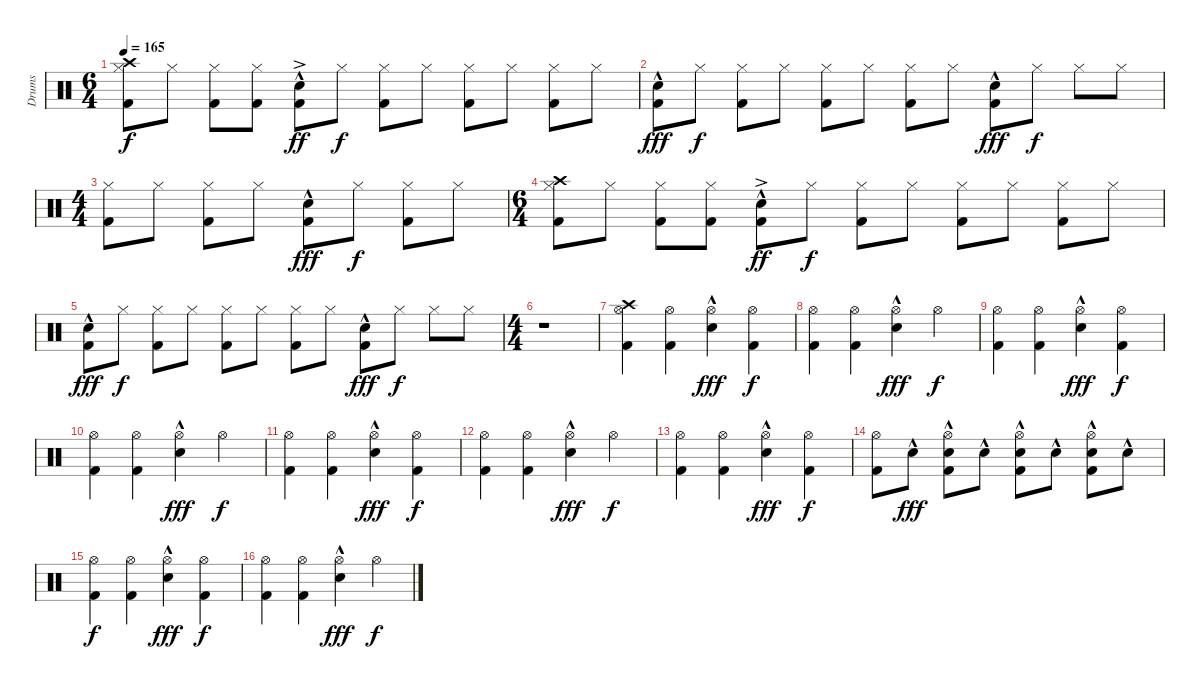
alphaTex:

\track ("Drums" "Drums") {instrument percussion}
\staff {score}
\articulation defaults
\ts (6 4)
\tempo 165
\clef neutral
\ks c
("Crash high (hit)" "Hi-Hat (closed)" "Kick (hit) 2").8{dy f} "Hi-Hat (closed)".8 ("Hi-Hat (closed)" "Kick (hit) 2").8 ("Hi-Hat (closed)" "Kick (hit) 2").8 ("Electric Snare (hit)"{hac} "Kick (hit) 2"{ac}).8{dy ff} "Hi-Hat (closed)".8{dy f} ("Hi-Hat (closed)" "Kick (hit) 2").8 "Hi-Hat (closed)".8 ("Hi-Hat (closed)" "Kick (hit) 2").8 "Hi-Hat (closed)".8 ("Hi-Hat (closed)" "Kick (hit) 2").8 "Hi-Hat (closed)".8 |
("Electric Snare (hit)"{hac} "Kick (hit) 2"{hac}).8{dy fff} "Hi-Hat (closed)".8{dy f} ("Hi-Hat (closed)" "Kick (hit) 2").8 "Hi-Hat (closed)".8 ("Hi-Hat (closed)" "Kick (hit) 2").8 "Hi-Hat (closed)".8 ("Hi-Hat (closed)" "Kick (hit) 2").8 "Hi-Hat (closed)".8 ("Electric Snare (hit)"{hac} "Kick (hit) 2"{hac}).8{dy fff} "Hi-Hat (closed)".8{dy f} "Hi-Hat (closed)".8 "Hi-Hat (closed)".8 |
\ts (4 4)
("Hi-Hat (closed)" "Kick (hit) 2").8 "Hi-Hat (closed)".8 ("Hi-Hat (closed)" "Kick (hit) 2").8 "Hi-Hat (closed)".8 ("Electric Snare (hit)"{hac} "Kick (hit) 2"{hac}).8{dy fff} "Hi-Hat (closed)".8{dy f} ("Hi-Hat (closed)" "Kick (hit) 2").8 "Hi-Hat (closed)".8 |
\ts (6 4)
("Crash high (hit)" "Hi-Hat (closed)" "Kick (hit) 2").8 "Hi-Hat (closed)".8 ("Hi-Hat (closed)" "Kick (hit) 2").8 ("Hi-Hat (closed)" "Kick (hit) 2").8 ("Electric Snare (hit)"{hac} "Kick (hit) 2"{ac}).8{dy ff} "Hi-Hat (closed)".8{dy f} ("Hi-Hat (closed)" "Kick (hit) 2").8 "Hi-Hat (closed)".8 ("Hi-Hat (closed)" "Kick (hit) 2").8 "Hi-Hat (closed)".8 ("Hi-Hat (closed)" "Kick (hit) 2").8 "Hi-Hat (closed)".8 |
("Electric Snare (hit)"{hac} "Kick (hit) 2"{hac}).8{dy fff} "Hi-Hat (closed)".8{dy f} ("Hi-Hat (closed)" "Kick (hit) 2").8 "Hi-Hat (closed)".8 ("Hi-Hat (closed)" "Kick (hit) 2").8 "Hi-Hat (closed)".8 ("Hi-Hat (closed)" "Kick (hit) 2").8 "Hi-Hat (closed)".8 ("Electric Snare (hit)"{hac} "Kick (hit) 2"{hac}).8{dy fff} "Hi-Hat (closed)".8{dy f} "Hi-Hat (closed)".8 "Hi-Hat (closed)".8 |
\ts (4 4)
r.1 |
("Crash high (hit)" "Hi-Hat (open)" "Kick (hit) 2").4 ("Hi-Hat (open)" "Kick (hit) 2").4 ("Hi-Hat (open)" "Electric Snare (hit)"{hac}).4{dy fff} ("Hi-Hat (open)" "Kick (hit) 2").4{dy f} |
("Hi-Hat (open)" "Kick (hit) 2").4 ("Hi-Hat (open)" "Kick (hit) 2").4 ("Hi-Hat (open)" "Electric Snare (hit)"{hac}).4{dy fff} "Hi-Hat (open)".4{dy f} |
("Hi-Hat (open)" "Kick (hit) 2").4 ("Hi-Hat (open)" "Kick (hit) 2").4 ("Hi-Hat (open)" "Electric Snare (hit)"{hac}).4{dy fff} ("Hi-Hat (open)" "Kick (hit) 2").4{dy f} |
("Hi-Hat (open)" "Kick (hit) 2").4 ("Hi-Hat (open)" "Kick (hit) 2").4 ("Hi-Hat (open)" "Electric Snare (hit)"{hac}).4{dy fff} "Hi-Hat (open)".4{dy f} |
("Hi-Hat (open)" "Kick (hit) 2").4 ("Hi-Hat (open)" "Kick (hit) 2").4 ("Hi-Hat (open)" "Electric Snare (hit)"{hac}).4{dy fff} ("Hi-Hat (open)" "Kick (hit) 2").4{dy f} |
("Hi-Hat (open)" "Kick (hit) 2").4 ("Hi-Hat (open)" "Kick (hit) 2").4 ("Hi-Hat (open)" "Electric Snare (hit)"{hac}).4{dy fff} "Hi-Hat (open)".4{dy f} |
("Hi-Hat (open)" "Kick (hit) 2").4 ("Hi-Hat (open)" "Kick (hit) 2").4 ("Hi-Hat (open)" "Electric Snare (hit)"{hac}).4{dy fff} ("Hi-Hat (open)" "Kick (hit) 2").4{dy f} |
("Hi-Hat (open)" "Kick (hit) 2").8 "Electric Snare (hit)"{hac}.8{dy fff} ("Hi-Hat (open)" "Electric Snare (hit)"{hac} "Kick (hit) 2").8 "Electric Snare (hit)"{hac}.8 ("Hi-Hat (open)" "Electric Snare (hit)"{hac} "Kick (hit) 2").8 "Electric Snare (hit)"{hac}.8 ("Hi-Hat (open)" "Electric Snare (hit)"{hac} "Kick (hit) 2").8 "Electric Snare (hit)"{hac}.8 |
("Hi-Hat (open)" "Kick (hit) 2").4{dy f} ("Hi-Hat (open)" "Kick (hit) 2").4 ("Hi-Hat (open)" "Electric Snare (hit)"{hac}).4{dy fff} ("Hi-Hat (open)" "Kick (hit) 2").4{dy f} |
("Hi-Hat (open)" "Kick (hit) 2").4 ("Hi-Hat (open)" "Kick (hit) 2").4 ("Hi-Hat (open)" "Electric Snare (hit)"{hac}).4{dy fff} "Hi-Hat (open)".4{dy f}
